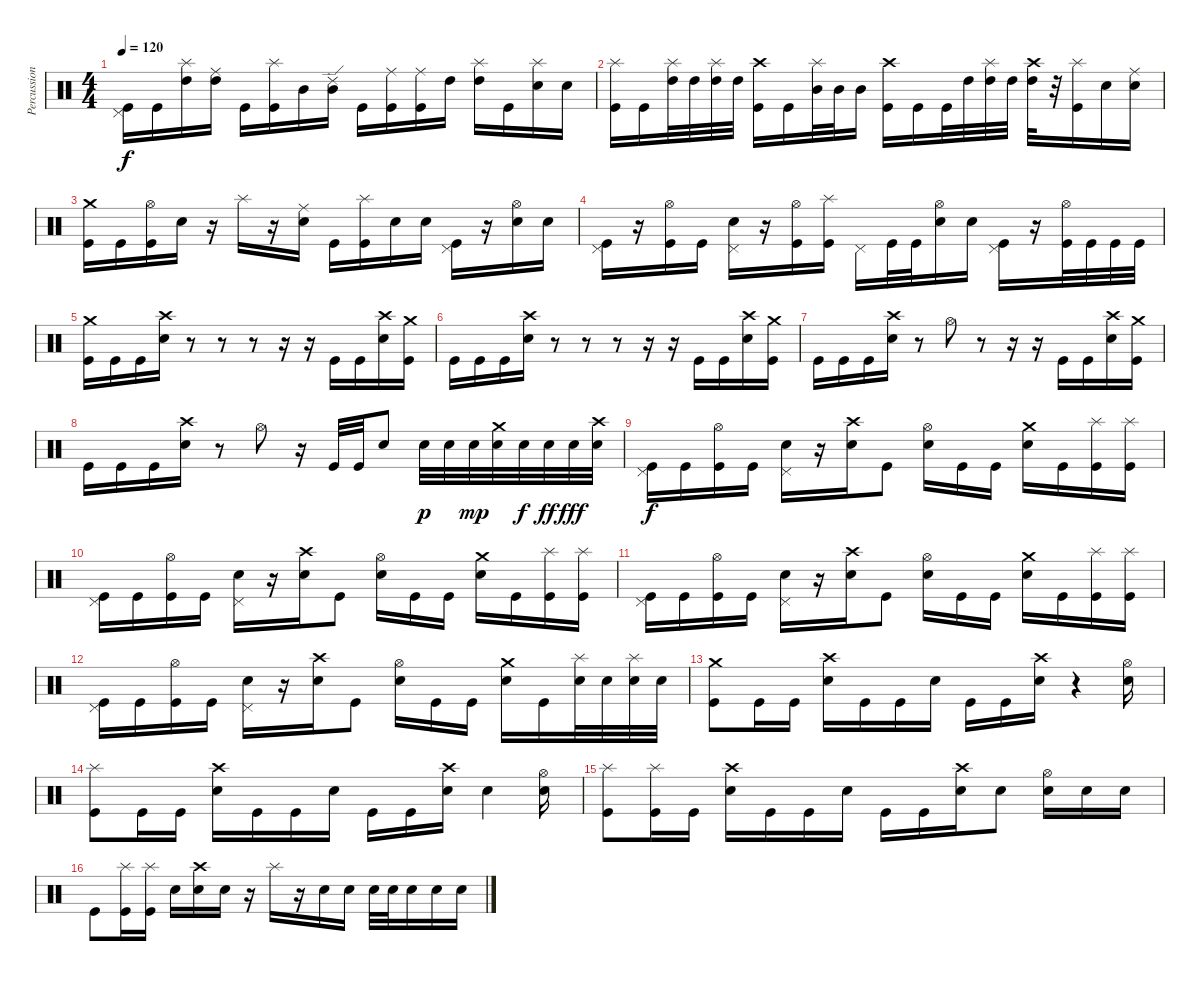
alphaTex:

\track ("Percussions" "Percussion") {instrument percussion}
\staff {score}
\articulation defaults
\ts (4 4)
\tempo 120
\clef neutral
\ks c
("Pedal Hi-Hat (hit)" "Kick (hit)").16{dy f} "Kick (hit)".16 ("Splash (hit)" "High Tom (hit)").16 ("Ride (middle)" "High Tom (hit)").16 "Kick (hit)".16 ("Splash (hit)" "Kick (hit)").16 "Mid Tom (hit)".16 ("Ride (edge) 2" "Mid Tom (hit)").16 "Kick (hit)".16 ("Ride (middle)" "Kick (hit)").16 ("Ride (middle)" "Kick (hit)").16 "High Tom (hit)".16 ("Splash (hit)" "High Tom (hit)").16 "Kick (hit)".16 ("Splash (hit)" "Snare (hit) 2").16 "Snare (hit) 2".16 |
("Splash (hit)" "Kick (hit)").16 "Kick (hit)".16 ("Splash (hit)" "High Tom (hit)").32 "High Tom (hit)".32 ("Splash (hit)" "High Tom (hit)").32 "High Tom (hit)".32 ("Crash high (hit)" "Kick (hit)").16 "Kick (hit)".16 ("Splash (hit)" "Mid Tom (hit)").32 "Mid Tom (hit)".32 "Mid Tom (hit)".16 ("Crash high (hit)" "Kick (hit)").16 "Kick (hit)".16 "Kick (hit)".32 "High Tom (hit)".32 ("Splash (hit)" "High Tom (hit)").32 "High Tom (hit)".32 ("Crash high (hit)" "High Tom (hit)").32 r.32 ("Splash (hit)" "Kick (hit)").16 "Snare (hit) 2".16 ("Ride (middle)" "Snare (hit) 2").16 |
("Crash medium (hit)" "Kick (hit)").16 "Kick (hit)".16 ("Hi-Hat (open)" "Kick (hit)").16 "Snare (hit) 2".16 r.16 "Splash (hit)".16 r.16 ("Ride (middle)" "Snare (hit) 2").16 "Kick (hit)".16 ("Splash (hit)" "Kick (hit)").16 "Snare (hit) 2".16 "Snare (hit) 2".16 ("Pedal Hi-Hat (hit)" "Kick (hit)").16 r.16 ("Hi-Hat (open)" "Snare (hit) 2").16 "Snare (hit) 2".16 |
("Pedal Hi-Hat (hit)" "Kick (hit)").16 r.16 ("Hi-Hat (open)" "Kick (hit)").16 "Kick (hit)".16 ("Pedal Hi-Hat (hit)" "Snare (hit) 2").16 r.16 ("Hi-Hat (open)" "Kick (hit)").16 ("Splash (hit)" "Kick (hit)").16 "Pedal Hi-Hat (hit)".16 "Kick (hit)".32 "Kick (hit)".32 ("Hi-Hat (open)" "Snare (hit) 2").16 "Snare (hit) 2".16 ("Pedal Hi-Hat (hit)" "Kick (hit)").16 r.16 ("Hi-Hat (open)" "Kick (hit)").32 "Kick (hit)".32 "Kick (hit)".32 "Kick (hit)".32 |
("Crash medium (hit)" "Kick (hit)").16 "Kick (hit)".16 "Kick (hit)".16 ("Crash high (hit)" "Snare (hit) 2").16 r.8 r.8 r.8 r.16 r.16 "Kick (hit)".16 "Kick (hit)".16 ("Crash high (hit)" "Snare (hit) 2").16 ("Crash medium (hit)" "Kick (hit)").16 |
"Kick (hit)".16 "Kick (hit)".16 "Kick (hit)".16 ("Crash high (hit)" "Snare (hit) 2").16 r.8 r.8 r.8 r.16 r.16 "Kick (hit)".16 "Kick (hit)".16 ("Crash high (hit)" "Snare (hit) 2").16 ("Crash medium (hit)" "Kick (hit)").16 |
"Kick (hit)".16 "Kick (hit)".16 "Kick (hit)".16 ("Crash high (hit)" "Snare (hit) 2").16 r.8 "Hi-Hat (open)".8 r.8 r.16 r.16 "Kick (hit)".16 "Kick (hit)".16 ("Crash high (hit)" "Snare (hit) 2").16 ("Crash medium (hit)" "Kick (hit)").16 |
"Kick (hit)".16 "Kick (hit)".16 "Kick (hit)".16 ("Crash high (hit)" "Snare (hit) 2").16 r.8 "Hi-Hat (open)".8 r.16 "Kick (hit)".32 "Kick (hit)".32 "Snare (hit) 2".8 "Snare (hit) 2".32{dy p} "Snare (hit) 2".32 "Snare (hit) 2".32{dy mp} ("Crash medium (hit)" "Snare (hit) 2").32 "Snare (hit) 2".32{dy f} "Snare (hit) 2".32{dy ff} "Snare (hit) 2".32{dy fff} ("Crash high (hit)" "Snare (hit) 2").32 |
("Pedal Hi-Hat (hit)" "Kick (hit)").16{dy f} "Kick (hit)".16 ("Hi-Hat (open)" "Kick (hit)").16 "Kick (hit)".16 ("Pedal Hi-Hat (hit)" "Snare (hit) 2").16 r.16 ("Crash high (hit)" "Snare (hit) 2").16 "Kick (hit)".8 ("Hi-Hat (open)" "Snare (hit) 2").16 "Kick (hit)".16 "Kick (hit)".16 ("Crash medium (hit)" "Snare (hit) 2").16 "Kick (hit)".16 ("Splash (hit)" "Kick (hit)").16 ("Splash (hit)" "Kick (hit)").16 |
("Pedal Hi-Hat (hit)" "Kick (hit)").16 "Kick (hit)".16 ("Hi-Hat (open)" "Kick (hit)").16 "Kick (hit)".16 ("Pedal Hi-Hat (hit)" "Snare (hit) 2").16 r.16 ("Crash high (hit)" "Snare (hit) 2").16 "Kick (hit)".8 ("Hi-Hat (open)" "Snare (hit) 2").16 "Kick (hit)".16 "Kick (hit)".16 ("Crash medium (hit)" "Snare (hit) 2").16 "Kick (hit)".16 ("Splash (hit)" "Kick (hit)").16 ("Splash (hit)" "Kick (hit)").16 |
("Pedal Hi-Hat (hit)" "Kick (hit)").16 "Kick (hit)".16 ("Hi-Hat (open)" "Kick (hit)").16 "Kick (hit)".16 ("Pedal Hi-Hat (hit)" "Snare (hit) 2").16 r.16 ("Crash high (hit)" "Snare (hit) 2").16 "Kick (hit)".8 ("Hi-Hat (open)" "Snare (hit) 2").16 "Kick (hit)".16 "Kick (hit)".16 ("Crash medium (hit)" "Snare (hit) 2").16 "Kick (hit)".16 ("Splash (hit)" "Kick (hit)").16 ("Splash (hit)" "Kick (hit)").16 |
("Pedal Hi-Hat (hit)" "Kick (hit)").16 "Kick (hit)".16 ("Hi-Hat (open)" "Kick (hit)").16 "Kick (hit)".16 ("Pedal Hi-Hat (hit)" "Snare (hit) 2").16 r.16 ("Crash high (hit)" "Snare (hit) 2").16 "Kick (hit)".8 ("Hi-Hat (open)" "Snare (hit) 2").16 "Kick (hit)".16 "Kick (hit)".16 ("Crash medium (hit)" "Snare (hit) 2").16 "Kick (hit)".16 ("Splash (hit)" "Snare (hit) 2").32 "Snare (hit) 2".32 ("Splash (hit)" "Snare (hit) 2").32 "Snare (hit) 2".32 |
("Crash medium (hit)" "Kick (hit)").8 "Kick (hit)".16 "Kick (hit)".16 ("Crash high (hit)" "Snare (hit) 2").16 "Kick (hit)".16 "Kick (hit)".16 "Snare (hit) 2".16 "Kick (hit)".16 "Kick (hit)".16 ("Crash high (hit)" "Snare (hit) 2").16 r.4 ("Hi-Hat (open)" "Snare (hit) 2").16 |
("Splash (hit)" "Kick (hit)").8 "Kick (hit)".16 "Kick (hit)".16 ("Crash high (hit)" "Snare (hit) 2").16 "Kick (hit)".16 "Kick (hit)".16 "Snare (hit) 2".16 "Kick (hit)".16 "Kick (hit)".16 ("Crash high (hit)" "Snare (hit) 2").16 "Snare (hit) 2".4 ("Hi-Hat (open)" "Snare (hit) 2").16 |
("Splash (hit)" "Kick (hit)").8 ("Splash (hit)" "Kick (hit)").16 "Kick (hit)".16 ("Crash high (hit)" "Snare (hit) 2").16 "Kick (hit)".16 "Kick (hit)".16 "Snare (hit) 2".16 "Kick (hit)".16 "Kick (hit)".16 ("Crash high (hit)" "Snare (hit) 2").16 "Snare (hit) 2".8 ("Hi-Hat (open)" "Snare (hit) 2").16 "Snare (hit) 2".16 "Snare (hit) 2".16 |
"Kick (hit)".8 ("Splash (hit)" "Kick (hit)").16 ("Splash (hit)" "Kick (hit)").16 "Snare (hit) 2".16 ("Crash high (hit)" "Snare (hit) 2").16 "Snare (hit) 2".16 r.16 "Splash (hit)".16 r.16 "Snare (hit) 2".16 "Snare (hit) 2".16 "Snare (hit) 2".32 "Snare (hit) 2".32 "Snare (hit) 2".16 "Snare (hit) 2".16 "Snare (hit) 2".16
